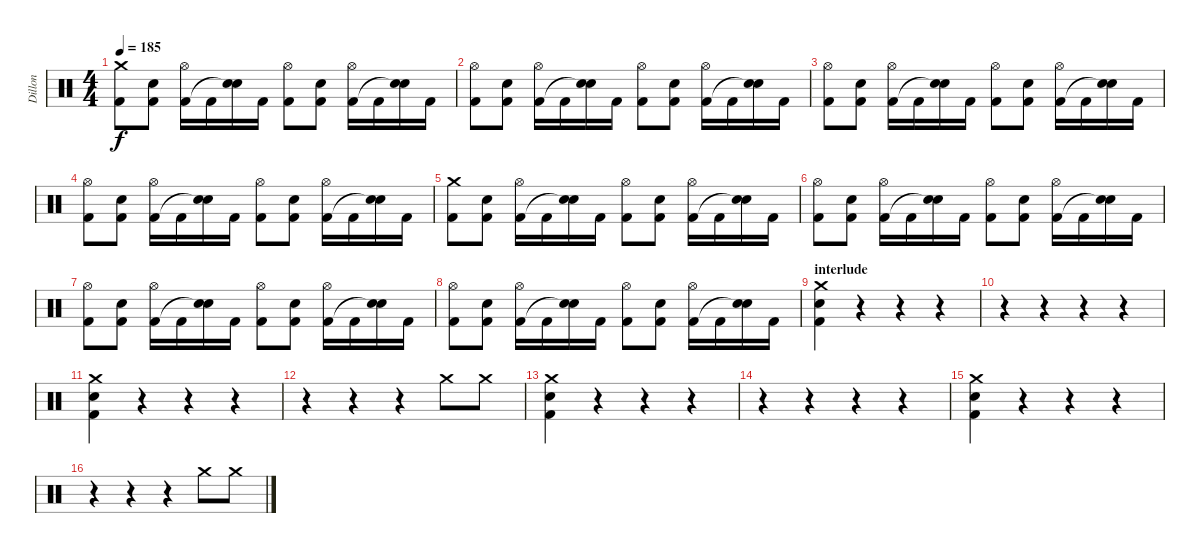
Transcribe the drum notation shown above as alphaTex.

\track ("Dillon" "Dillon") {instrument percussion}
\staff {score}
\articulation defaults
\ts (4 4)
\tempo 185
\clef neutral
\ks c
("Crash medium (hit)" "Kick (hit) 2").8{dy f} ("Electric Snare (hit)" "Kick (hit) 2").8 ("Hi-Hat (open)" "Kick (hit) 2").16 "Kick (hit) 2".16 ("Electric Snare (hit)" "Snare (hit)"{t}).16 "Kick (hit) 2".16 ("Hi-Hat (open)" "Kick (hit) 2").8 ("Electric Snare (hit)" "Kick (hit) 2").8 ("Hi-Hat (open)" "Kick (hit) 2").16 "Kick (hit) 2".16 ("Electric Snare (hit)" "Snare (hit)"{t}).16 "Kick (hit) 2".16 |
("Hi-Hat (open)" "Kick (hit) 2").8 ("Electric Snare (hit)" "Kick (hit) 2").8 ("Hi-Hat (open)" "Kick (hit) 2").16 "Kick (hit) 2".16 ("Electric Snare (hit)" "Snare (hit)"{t}).16 "Kick (hit) 2".16 ("Hi-Hat (open)" "Kick (hit) 2").8 ("Electric Snare (hit)" "Kick (hit) 2").8 ("Hi-Hat (open)" "Kick (hit) 2").16 "Kick (hit) 2".16 ("Electric Snare (hit)" "Snare (hit)"{t}).16 "Kick (hit) 2".16 |
("Hi-Hat (open)" "Kick (hit) 2").8 ("Electric Snare (hit)" "Kick (hit) 2").8 ("Hi-Hat (open)" "Kick (hit) 2").16 "Kick (hit) 2".16 ("Electric Snare (hit)" "Snare (hit)"{t}).16 "Kick (hit) 2".16 ("Hi-Hat (open)" "Kick (hit) 2").8 ("Electric Snare (hit)" "Kick (hit) 2").8 ("Hi-Hat (open)" "Kick (hit) 2").16 "Kick (hit) 2".16 ("Electric Snare (hit)" "Snare (hit)"{t}).16 "Kick (hit) 2".16 |
("Hi-Hat (open)" "Kick (hit) 2").8 ("Electric Snare (hit)" "Kick (hit) 2").8 ("Hi-Hat (open)" "Kick (hit) 2").16 "Kick (hit) 2".16 ("Electric Snare (hit)" "Snare (hit)"{t}).16 "Kick (hit) 2".16 ("Hi-Hat (open)" "Kick (hit) 2").8 ("Electric Snare (hit)" "Kick (hit) 2").8 ("Hi-Hat (open)" "Kick (hit) 2").16 "Kick (hit) 2".16 ("Electric Snare (hit)" "Snare (hit)"{t}).16 "Kick (hit) 2".16 |
("Crash medium (hit)" "Kick (hit) 2").8 ("Electric Snare (hit)" "Kick (hit) 2").8 ("Hi-Hat (open)" "Kick (hit) 2").16 "Kick (hit) 2".16 ("Electric Snare (hit)" "Snare (hit)"{t}).16 "Kick (hit) 2".16 ("Hi-Hat (open)" "Kick (hit) 2").8 ("Electric Snare (hit)" "Kick (hit) 2").8 ("Hi-Hat (open)" "Kick (hit) 2").16 "Kick (hit) 2".16 ("Electric Snare (hit)" "Snare (hit)"{t}).16 "Kick (hit) 2".16 |
("Hi-Hat (open)" "Kick (hit) 2").8 ("Electric Snare (hit)" "Kick (hit) 2").8 ("Hi-Hat (open)" "Kick (hit) 2").16 "Kick (hit) 2".16 ("Electric Snare (hit)" "Snare (hit)"{t}).16 "Kick (hit) 2".16 ("Hi-Hat (open)" "Kick (hit) 2").8 ("Electric Snare (hit)" "Kick (hit) 2").8 ("Hi-Hat (open)" "Kick (hit) 2").16 "Kick (hit) 2".16 ("Electric Snare (hit)" "Snare (hit)"{t}).16 "Kick (hit) 2".16 |
("Hi-Hat (open)" "Kick (hit) 2").8 ("Electric Snare (hit)" "Kick (hit) 2").8 ("Hi-Hat (open)" "Kick (hit) 2").16 "Kick (hit) 2".16 ("Electric Snare (hit)" "Snare (hit)"{t}).16 "Kick (hit) 2".16 ("Hi-Hat (open)" "Kick (hit) 2").8 ("Electric Snare (hit)" "Kick (hit) 2").8 ("Hi-Hat (open)" "Kick (hit) 2").16 "Kick (hit) 2".16 ("Electric Snare (hit)" "Snare (hit)"{t}).16 "Kick (hit) 2".16 |
("Hi-Hat (open)" "Kick (hit) 2").8 ("Electric Snare (hit)" "Kick (hit) 2").8 ("Hi-Hat (open)" "Kick (hit) 2").16 "Kick (hit) 2".16 ("Electric Snare (hit)" "Snare (hit)"{t}).16 "Kick (hit) 2".16 ("Hi-Hat (open)" "Kick (hit) 2").8 ("Electric Snare (hit)" "Kick (hit) 2").8 ("Hi-Hat (open)" "Kick (hit) 2").16 "Kick (hit) 2".16 ("Electric Snare (hit)" "Snare (hit)"{t}).16 "Kick (hit) 2".16 |
\section ("" "interlude")
("Crash medium (hit)" "Electric Snare (hit)" "Kick (hit) 2").4 r.4 r.4 r.4 |
r.4 r.4 r.4 r.4 |
("Crash medium (hit)" "Electric Snare (hit)" "Kick (hit) 2").4 r.4 r.4 r.4 |
r.4 r.4 r.4 "Crash medium (hit)".8 "Crash medium (hit)".8 |
("Crash medium (hit)" "Electric Snare (hit)" "Kick (hit) 2").4 r.4 r.4 r.4 |
r.4 r.4 r.4 r.4 |
("Crash medium (hit)" "Electric Snare (hit)" "Kick (hit) 2").4 r.4 r.4 r.4 |
r.4 r.4 r.4 "Crash medium (hit)".8 "Crash medium (hit)".8
